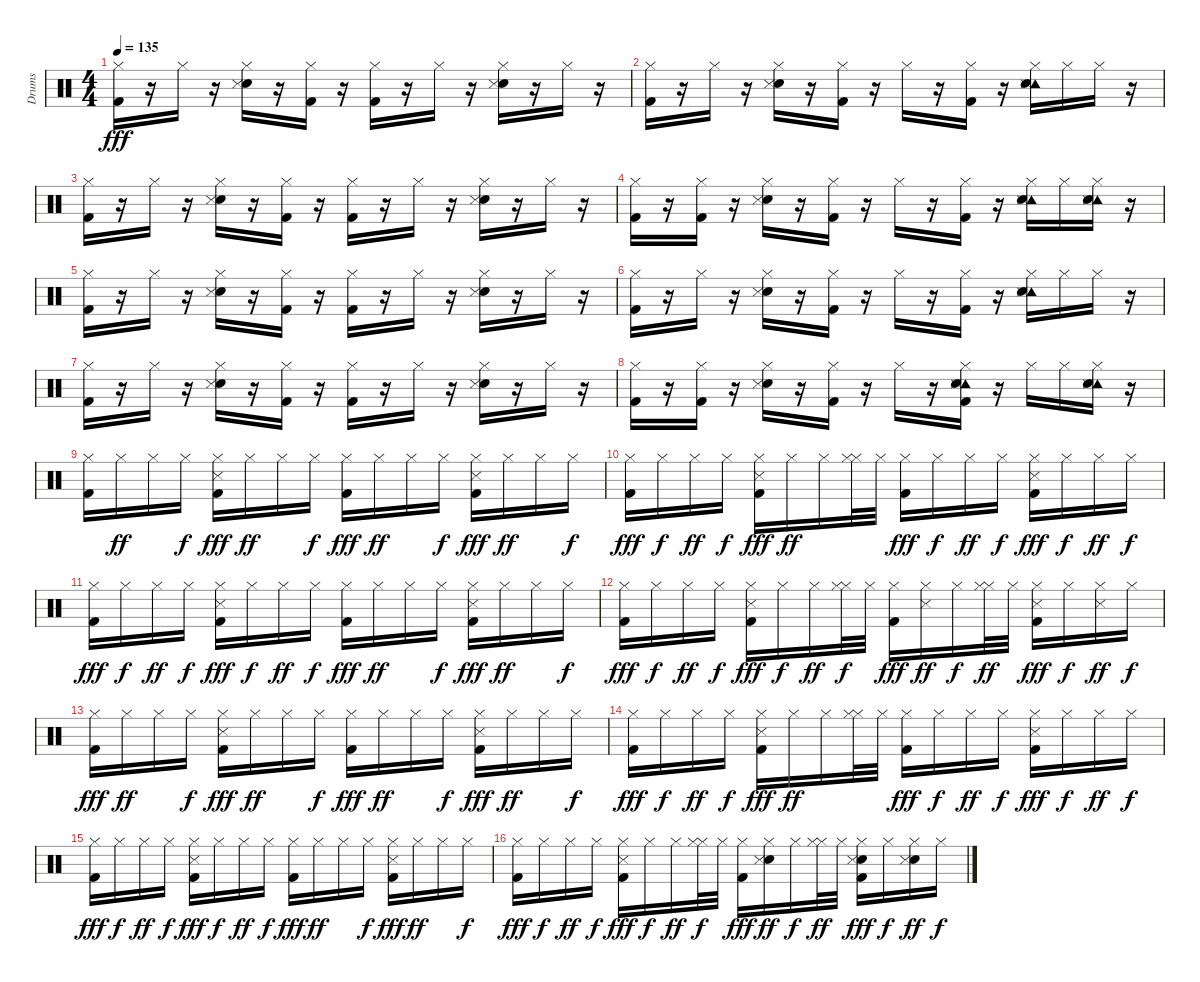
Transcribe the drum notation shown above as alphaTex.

\track ("Drums" "Drums") {instrument percussion}
\staff {score}
\articulation defaults
\ts (4 4)
\tempo 135
\clef neutral
\ks c
("Kick (hit) 2" "Hi-Hat (closed)").16{dy fff} r.16 "Hi-Hat (closed)".16 r.16 ("Electric Snare (hit)" "Snare (side stick) 3" "Hi-Hat (closed)").16 r.16 ("Kick (hit) 2" "Hi-Hat (closed)").16 r.16 ("Kick (hit) 2" "Hi-Hat (closed)").16 r.16 "Hi-Hat (closed)".16 r.16 ("Electric Snare (hit)" "Snare (side stick) 3" "Hi-Hat (closed)").16 r.16 "Hi-Hat (closed)".16 r.16 |
("Kick (hit) 2" "Hi-Hat (closed)").16 r.16 "Hi-Hat (closed)".16 r.16 ("Electric Snare (hit)" "Snare (side stick) 3" "Hi-Hat (closed)").16 r.16 ("Kick (hit) 2" "Hi-Hat (closed)").16 r.16 "Hi-Hat (closed)".16 r.16 ("Kick (hit) 2" "Hi-Hat (closed)").16 r.16 ("Tambourine (hit)" "Electric Snare (hit)" "Snare (side stick) 3" "Hi-Hat (closed)").16 "Hi-Hat (closed)".16 "Hi-Hat (closed)".16 r.16 |
("Kick (hit) 2" "Hi-Hat (closed)").16 r.16 "Hi-Hat (closed)".16 r.16 ("Electric Snare (hit)" "Snare (side stick) 3" "Hi-Hat (closed)").16 r.16 ("Kick (hit) 2" "Hi-Hat (closed)").16 r.16 ("Kick (hit) 2" "Hi-Hat (closed)").16 r.16 "Hi-Hat (closed)".16 r.16 ("Electric Snare (hit)" "Snare (side stick) 3" "Hi-Hat (closed)").16 r.16 "Hi-Hat (closed)".16 r.16 |
("Hi-Hat (closed)" "Kick (hit) 2").16 r.16 ("Kick (hit) 2" "Hi-Hat (closed)").16 r.16 ("Electric Snare (hit)" "Hi-Hat (closed)" "Snare (side stick) 3").16 r.16 ("Hi-Hat (closed)" "Kick (hit) 2").16 r.16 "Hi-Hat (closed)".16 r.16 ("Hi-Hat (closed)" "Kick (hit) 2").16 r.16 ("Tambourine (hit)" "Electric Snare (hit)" "Hi-Hat (closed)" "Snare (side stick) 3").16 "Hi-Hat (closed)".16 ("Tambourine (hit)" "Snare (side stick) 3" "Electric Snare (hit)" "Hi-Hat (closed)").16 r.16 |
("Kick (hit) 2" "Hi-Hat (closed)").16 r.16 "Hi-Hat (closed)".16 r.16 ("Electric Snare (hit)" "Snare (side stick) 3" "Hi-Hat (closed)").16 r.16 ("Kick (hit) 2" "Hi-Hat (closed)").16 r.16 ("Kick (hit) 2" "Hi-Hat (closed)").16 r.16 "Hi-Hat (closed)".16 r.16 ("Electric Snare (hit)" "Snare (side stick) 3" "Hi-Hat (closed)").16 r.16 "Hi-Hat (closed)".16 r.16 |
("Kick (hit) 2" "Hi-Hat (closed)").16 r.16 "Hi-Hat (closed)".16 r.16 ("Electric Snare (hit)" "Snare (side stick) 3" "Hi-Hat (closed)").16 r.16 ("Kick (hit) 2" "Hi-Hat (closed)").16 r.16 "Hi-Hat (closed)".16 r.16 ("Kick (hit) 2" "Hi-Hat (closed)").16 r.16 ("Tambourine (hit)" "Electric Snare (hit)" "Snare (side stick) 3" "Hi-Hat (closed)").16 "Hi-Hat (closed)".16 "Hi-Hat (closed)".16 r.16 |
("Kick (hit) 2" "Hi-Hat (closed)").16 r.16 "Hi-Hat (closed)".16 r.16 ("Electric Snare (hit)" "Snare (side stick) 3" "Hi-Hat (closed)").16 r.16 ("Kick (hit) 2" "Hi-Hat (closed)").16 r.16 ("Kick (hit) 2" "Hi-Hat (closed)").16 r.16 "Hi-Hat (closed)".16 r.16 ("Electric Snare (hit)" "Snare (side stick) 3" "Hi-Hat (closed)").16 r.16 "Hi-Hat (closed)".16 r.16 |
("Hi-Hat (closed)" "Kick (hit) 2").16 r.16 ("Kick (hit) 2" "Hi-Hat (closed)").16 r.16 ("Electric Snare (hit)" "Hi-Hat (closed)" "Snare (side stick) 3").16 r.16 ("Hi-Hat (closed)" "Kick (hit) 2").16 r.16 "Hi-Hat (closed)".16 r.16 ("Tambourine (hit)" "Snare (side stick) 3" "Electric Snare (hit)" "Hi-Hat (closed)" "Kick (hit) 2").16 r.16 "Hi-Hat (closed)".16 "Hi-Hat (closed)".16 ("Tambourine (hit)" "Snare (side stick) 3" "Electric Snare (hit)" "Hi-Hat (closed)").16 r.16 |
("Kick (hit) 2" "Hi-Hat (closed)").16 "Hi-Hat (closed)".16{dy ff} "Hi-Hat (closed)".16 "Hi-Hat (closed)".16{dy f} ("Snare (side stick) 3" "Kick (hit) 2" "Hi-Hat (closed)").16{dy fff} "Hi-Hat (closed)".16{dy ff} "Hi-Hat (closed)".16 "Hi-Hat (closed)".16{dy f} ("Kick (hit) 2" "Hi-Hat (closed)").16{dy fff} "Hi-Hat (closed)".16{dy ff} "Hi-Hat (closed)".16 "Hi-Hat (closed)".16{dy f} ("Snare (side stick) 3" "Kick (hit) 2" "Hi-Hat (closed)").16{dy fff} "Hi-Hat (closed)".16{dy ff} "Hi-Hat (closed)".16 "Hi-Hat (closed)".16{dy f} |
("Kick (hit) 2" "Hi-Hat (closed)").16{dy fff} "Hi-Hat (closed)".16{dy f} "Hi-Hat (closed)".16{dy ff} "Hi-Hat (closed)".16{dy f} ("Snare (side stick) 3" "Kick (hit) 2" "Hi-Hat (closed)").16{dy fff} "Hi-Hat (closed)".16{dy ff} "Hi-Hat (closed)".16 ("Hi-Hat (closed)" "Hi-Hat (closed)").32 "Hi-Hat (closed)".32 ("Kick (hit) 2" "Hi-Hat (closed)").16{dy fff} "Hi-Hat (closed)".16{dy f} "Hi-Hat (closed)".16{dy ff} "Hi-Hat (closed)".16{dy f} ("Snare (side stick) 3" "Kick (hit) 2" "Hi-Hat (closed)").16{dy fff} "Hi-Hat (closed)".16{dy f} "Hi-Hat (closed)".16{dy ff} "Hi-Hat (closed)".16{dy f} |
("Kick (hit) 2" "Hi-Hat (closed)").16{dy fff} "Hi-Hat (closed)".16{dy f} "Hi-Hat (closed)".16{dy ff} "Hi-Hat (closed)".16{dy f} ("Snare (side stick) 3" "Kick (hit) 2" "Hi-Hat (closed)").16{dy fff} "Hi-Hat (closed)".16{dy f} "Hi-Hat (closed)".16{dy ff} "Hi-Hat (closed)".16{dy f} ("Kick (hit) 2" "Hi-Hat (closed)").16{dy fff} "Hi-Hat (closed)".16{dy ff} "Hi-Hat (closed)".16 "Hi-Hat (closed)".16{dy f} ("Snare (side stick) 3" "Kick (hit) 2" "Hi-Hat (closed)").16{dy fff} "Hi-Hat (closed)".16{dy ff} "Hi-Hat (closed)".16 "Hi-Hat (closed)".16{dy f} |
("Kick (hit) 2" "Hi-Hat (closed)").16{dy fff} "Hi-Hat (closed)".16{dy f} "Hi-Hat (closed)".16{dy ff} "Hi-Hat (closed)".16{dy f} ("Snare (side stick) 3" "Kick (hit) 2" "Hi-Hat (closed)").16{dy fff} "Hi-Hat (closed)".16{dy f} "Hi-Hat (closed)".16{dy ff} ("Hi-Hat (closed)" "Hi-Hat (closed)").32{dy f} "Hi-Hat (closed)".32 ("Kick (hit) 2" "Hi-Hat (closed)").16{dy fff} ("Snare (side stick) 3" "Hi-Hat (closed)").16{dy ff} "Hi-Hat (closed)".16{dy f} ("Hi-Hat (closed)" "Hi-Hat (closed)").32{dy ff} "Hi-Hat (closed)".32 ("Snare (side stick) 3" "Kick (hit) 2" "Hi-Hat (closed)").16{dy fff} "Hi-Hat (closed)".16{dy f} ("Snare (side stick) 3" "Hi-Hat (closed)").16{dy ff} "Hi-Hat (closed)".16{dy f} |
("Kick (hit) 2" "Hi-Hat (closed)").16{dy fff} "Hi-Hat (closed)".16{dy ff} "Hi-Hat (closed)".16 "Hi-Hat (closed)".16{dy f} ("Snare (side stick) 3" "Kick (hit) 2" "Hi-Hat (closed)").16{dy fff} "Hi-Hat (closed)".16{dy ff} "Hi-Hat (closed)".16 "Hi-Hat (closed)".16{dy f} ("Kick (hit) 2" "Hi-Hat (closed)").16{dy fff} "Hi-Hat (closed)".16{dy ff} "Hi-Hat (closed)".16 "Hi-Hat (closed)".16{dy f} ("Snare (side stick) 3" "Kick (hit) 2" "Hi-Hat (closed)").16{dy fff} "Hi-Hat (closed)".16{dy ff} "Hi-Hat (closed)".16 "Hi-Hat (closed)".16{dy f} |
("Kick (hit) 2" "Hi-Hat (closed)").16{dy fff} "Hi-Hat (closed)".16{dy f} "Hi-Hat (closed)".16{dy ff} "Hi-Hat (closed)".16{dy f} ("Snare (side stick) 3" "Kick (hit) 2" "Hi-Hat (closed)").16{dy fff} "Hi-Hat (closed)".16{dy ff} "Hi-Hat (closed)".16 ("Hi-Hat (closed)" "Hi-Hat (closed)").32 "Hi-Hat (closed)".32 ("Kick (hit) 2" "Hi-Hat (closed)").16{dy fff} "Hi-Hat (closed)".16{dy f} "Hi-Hat (closed)".16{dy ff} "Hi-Hat (closed)".16{dy f} ("Snare (side stick) 3" "Kick (hit) 2" "Hi-Hat (closed)").16{dy fff} "Hi-Hat (closed)".16{dy f} "Hi-Hat (closed)".16{dy ff} "Hi-Hat (closed)".16{dy f} |
("Kick (hit) 2" "Hi-Hat (closed)").16{dy fff} "Hi-Hat (closed)".16{dy f} "Hi-Hat (closed)".16{dy ff} "Hi-Hat (closed)".16{dy f} ("Snare (side stick) 3" "Kick (hit) 2" "Hi-Hat (closed)").16{dy fff} "Hi-Hat (closed)".16{dy f} "Hi-Hat (closed)".16{dy ff} "Hi-Hat (closed)".16{dy f} ("Kick (hit) 2" "Hi-Hat (closed)").16{dy fff} "Hi-Hat (closed)".16{dy ff} "Hi-Hat (closed)".16 "Hi-Hat (closed)".16{dy f} ("Snare (side stick) 3" "Kick (hit) 2" "Hi-Hat (closed)").16{dy fff} "Hi-Hat (closed)".16{dy ff} "Hi-Hat (closed)".16 "Hi-Hat (closed)".16{dy f} |
("Kick (hit) 2" "Hi-Hat (closed)").16{dy fff} "Hi-Hat (closed)".16{dy f} "Hi-Hat (closed)".16{dy ff} "Hi-Hat (closed)".16{dy f} ("Snare (side stick) 3" "Kick (hit) 2" "Hi-Hat (closed)").16{dy fff} "Hi-Hat (closed)".16{dy f} "Hi-Hat (closed)".16{dy ff} ("Hi-Hat (closed)" "Hi-Hat (closed)").32{dy f} "Hi-Hat (closed)".32 ("Kick (hit) 2" "Hi-Hat (closed)").16{dy fff} ("Electric Snare (hit)" "Snare (side stick) 3" "Hi-Hat (closed)").16{dy ff} "Hi-Hat (closed)".16{dy f} ("Hi-Hat (closed)" "Hi-Hat (closed)").32{dy ff} "Hi-Hat (closed)".32 ("Electric Snare (hit)" "Snare (side stick) 3" "Kick (hit) 2" "Hi-Hat (closed)").16{dy fff} "Hi-Hat (closed)".16{dy f} ("Electric Snare (hit)" "Snare (side stick) 3" "Hi-Hat (closed)").16{dy ff} "Hi-Hat (closed)".16{dy f}
